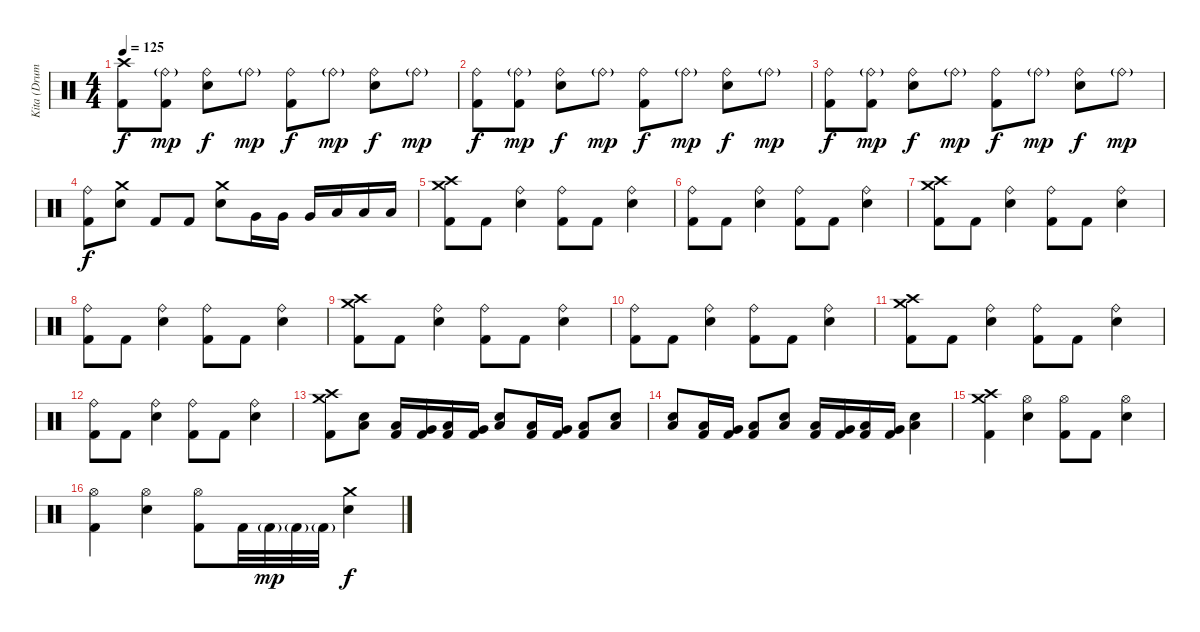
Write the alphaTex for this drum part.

\track ("Kita (Drums)" "Kita (Drum") {instrument percussion}
\staff {score}
\articulation defaults
\ts (4 4)
\tempo 125
\clef neutral
\ks c
("Crash high (hit)" "Kick (hit) 2").8{dy f} ("Ride (bell)"{g} "Kick (hit) 2").8{dy mp} ("Ride (bell)" "Electric Snare (hit)").8{dy f} "Ride (bell)"{g}.8{dy mp} ("Ride (bell)" "Kick (hit) 2").8{dy f} "Ride (bell)"{g}.8{dy mp} ("Ride (bell)" "Electric Snare (hit)").8{dy f} "Ride (bell)"{g}.8{dy mp} |
("Ride (bell)" "Kick (hit) 2").8{dy f} ("Ride (bell)"{g} "Kick (hit) 2").8{dy mp} ("Ride (bell)" "Electric Snare (hit)").8{dy f} "Ride (bell)"{g}.8{dy mp} ("Ride (bell)" "Kick (hit) 2").8{dy f} "Ride (bell)"{g}.8{dy mp} ("Ride (bell)" "Electric Snare (hit)").8{dy f} "Ride (bell)"{g}.8{dy mp} |
("Ride (bell)" "Kick (hit) 2").8{dy f} ("Ride (bell)"{g} "Kick (hit) 2").8{dy mp} ("Ride (bell)" "Electric Snare (hit)").8{dy f} "Ride (bell)"{g}.8{dy mp} ("Ride (bell)" "Kick (hit) 2").8{dy f} "Ride (bell)"{g}.8{dy mp} ("Ride (bell)" "Electric Snare (hit)").8{dy f} "Ride (bell)"{g}.8{dy mp} |
("Ride (bell)" "Kick (hit) 2").8{dy f} ("Crash medium (hit)" "Electric Snare (hit)").8 "Kick (hit) 2".8 "Kick (hit) 2".8 ("Crash medium (hit)" "Electric Snare (hit)").8 "Very Low Tom (hit)".16 "Very Low Tom (hit)".16 "Very Low Tom (hit)".16 "Low Floor Tom (hit)".16 "Low Floor Tom (hit)".16 "Low Floor Tom (hit)".16 |
("Crash medium (hit)" "Crash high (hit)" "Kick (hit) 2").8 "Kick (hit) 2".8 ("Ride (bell)" "Electric Snare (hit)").4 ("Ride (bell)" "Kick (hit) 2").8 "Kick (hit) 2".8 ("Ride (bell)" "Electric Snare (hit)").4 |
("Ride (bell)" "Kick (hit) 2").8 "Kick (hit) 2".8 ("Ride (bell)" "Electric Snare (hit)").4 ("Ride (bell)" "Kick (hit) 2").8 "Kick (hit) 2".8 ("Ride (bell)" "Electric Snare (hit)").4 |
("Crash medium (hit)" "Crash high (hit)" "Kick (hit) 2").8 "Kick (hit) 2".8 ("Ride (bell)" "Electric Snare (hit)").4 ("Ride (bell)" "Kick (hit) 2").8 "Kick (hit) 2".8 ("Ride (bell)" "Electric Snare (hit)").4 |
("Ride (bell)" "Kick (hit) 2").8 "Kick (hit) 2".8 ("Ride (bell)" "Electric Snare (hit)").4 ("Ride (bell)" "Kick (hit) 2").8 "Kick (hit) 2".8 ("Ride (bell)" "Electric Snare (hit)").4 |
("Crash medium (hit)" "Crash high (hit)" "Kick (hit) 2").8 "Kick (hit) 2".8 ("Ride (bell)" "Electric Snare (hit)").4 ("Ride (bell)" "Kick (hit) 2").8 "Kick (hit) 2".8 ("Ride (bell)" "Electric Snare (hit)").4 |
("Ride (bell)" "Kick (hit) 2").8 "Kick (hit) 2".8 ("Ride (bell)" "Electric Snare (hit)").4 ("Ride (bell)" "Kick (hit) 2").8 "Kick (hit) 2".8 ("Ride (bell)" "Electric Snare (hit)").4 |
("Crash medium (hit)" "Crash high (hit)" "Kick (hit) 2").8 "Kick (hit) 2".8 ("Ride (bell)" "Electric Snare (hit)").4 ("Ride (bell)" "Kick (hit) 2").8 "Kick (hit) 2".8 ("Ride (bell)" "Electric Snare (hit)").4 |
("Ride (bell)" "Kick (hit) 2").8 "Kick (hit) 2".8 ("Ride (bell)" "Electric Snare (hit)").4 ("Ride (bell)" "Kick (hit) 2").8 "Kick (hit) 2".8 ("Ride (bell)" "Electric Snare (hit)").4 |
("Crash medium (hit)" "Crash high (hit)" "Kick (hit) 2").8 ("Low Floor Tom (hit)" "Electric Snare (hit)").8 ("Low Floor Tom (hit)" "Kick (hit) 2").16 ("Very Low Tom (hit)" "Kick (hit) 2").16 ("Low Floor Tom (hit)" "Kick (hit) 2").16 ("Very Low Tom (hit)" "Kick (hit) 2").16 ("Low Floor Tom (hit)" "Electric Snare (hit)").8 ("Low Floor Tom (hit)" "Kick (hit) 2").16 ("Very Low Tom (hit)" "Kick (hit) 2").16 ("Low Floor Tom (hit)" "Kick (hit) 2").8 ("Low Floor Tom (hit)" "Electric Snare (hit)").8 |
("Low Floor Tom (hit)" "Electric Snare (hit)").8 ("Low Floor Tom (hit)" "Kick (hit) 2").16 ("Very Low Tom (hit)" "Kick (hit) 2").16 ("Low Floor Tom (hit)" "Kick (hit) 2").8 ("Low Floor Tom (hit)" "Electric Snare (hit)").8 ("Low Floor Tom (hit)" "Kick (hit) 2").16 ("Very Low Tom (hit)" "Kick (hit) 2").16 ("Low Floor Tom (hit)" "Kick (hit) 2").16 ("Very Low Tom (hit)" "Kick (hit) 2").16 ("Low Floor Tom (hit)" "Electric Snare (hit)").4 |
("Crash medium (hit)" "Crash high (hit)" "Kick (hit) 2").4 ("Hi-Hat (open)" "Electric Snare (hit)").4 ("Hi-Hat (open)" "Kick (hit) 2").8 "Kick (hit) 2".8 ("Hi-Hat (open)" "Electric Snare (hit)").4 |
("Hi-Hat (open)" "Kick (hit) 2").4 ("Hi-Hat (open)" "Electric Snare (hit)").4 ("Hi-Hat (open)" "Kick (hit) 2").8 "Kick (hit) 2".32 "Kick (hit) 2"{g}.32{dy mp} "Kick (hit) 2"{g}.32 "Kick (hit) 2"{g}.32 ("Crash medium (hit)" "Electric Snare (hit)").4{dy f}
